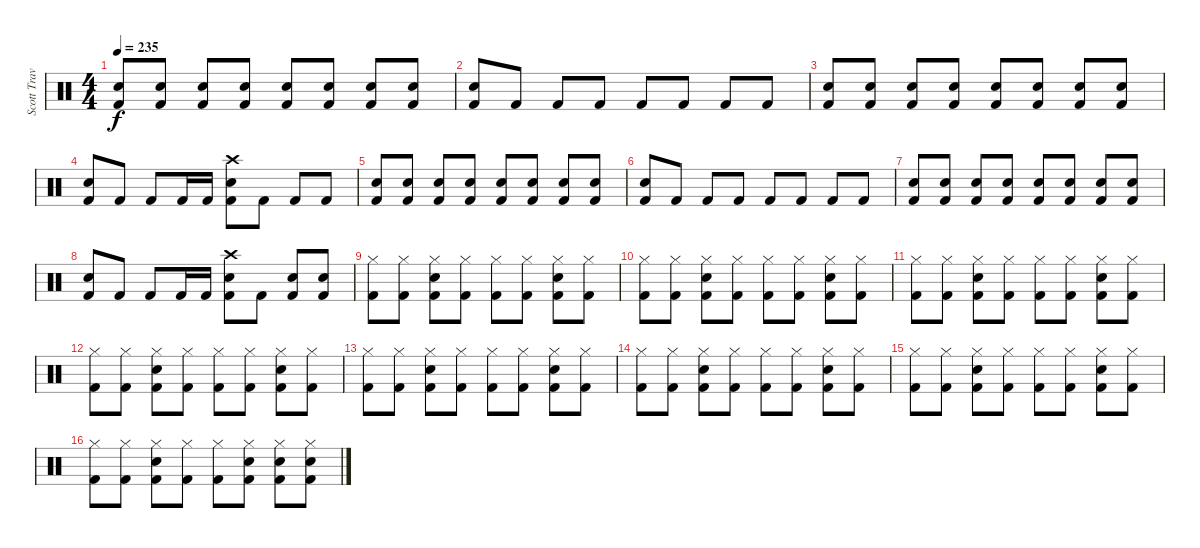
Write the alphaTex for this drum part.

\track ("Scott Travis" "Scott Trav") {instrument percussion}
\staff {score}
\articulation defaults
\ts (4 4)
\tempo 235
\clef neutral
\ks c
("Snare (hit) 2" "Kick (hit) 2").8{dy f} ("Snare (hit) 2" "Kick (hit) 2").8 ("Snare (hit) 2" "Kick (hit) 2").8 ("Snare (hit) 2" "Kick (hit) 2").8 ("Snare (hit) 2" "Kick (hit) 2").8 ("Snare (hit) 2" "Kick (hit) 2").8 ("Snare (hit) 2" "Kick (hit) 2").8 ("Snare (hit) 2" "Kick (hit) 2").8 |
("Snare (hit) 2" "Kick (hit) 2").8 "Kick (hit) 2".8 "Kick (hit) 2".8 "Kick (hit) 2".8 "Kick (hit) 2".8 "Kick (hit) 2".8 "Kick (hit) 2".8 "Kick (hit) 2".8 |
("Snare (hit) 2" "Kick (hit) 2").8 ("Snare (hit) 2" "Kick (hit) 2").8 ("Snare (hit) 2" "Kick (hit) 2").8 ("Snare (hit) 2" "Kick (hit) 2").8 ("Snare (hit) 2" "Kick (hit) 2").8 ("Snare (hit) 2" "Kick (hit) 2").8 ("Snare (hit) 2" "Kick (hit) 2").8 ("Snare (hit) 2" "Kick (hit) 2").8 |
("Snare (hit) 2" "Kick (hit) 2").8 "Kick (hit) 2".8 "Kick (hit) 2".8 "Kick (hit) 2".16 "Kick (hit) 2".16 ("Snare (hit) 2" "Crash high (hit)" "Kick (hit) 2").8 "Kick (hit) 2".8 "Kick (hit) 2".8 "Kick (hit) 2".8 |
("Snare (hit) 2" "Kick (hit) 2").8 ("Snare (hit) 2" "Kick (hit) 2").8 ("Snare (hit) 2" "Kick (hit) 2").8 ("Snare (hit) 2" "Kick (hit) 2").8 ("Snare (hit) 2" "Kick (hit) 2").8 ("Snare (hit) 2" "Kick (hit) 2").8 ("Snare (hit) 2" "Kick (hit) 2").8 ("Snare (hit) 2" "Kick (hit) 2").8 |
("Snare (hit) 2" "Kick (hit) 2").8 "Kick (hit) 2".8 "Kick (hit) 2".8 "Kick (hit) 2".8 "Kick (hit) 2".8 "Kick (hit) 2".8 "Kick (hit) 2".8 "Kick (hit) 2".8 |
("Snare (hit) 2" "Kick (hit) 2").8 ("Snare (hit) 2" "Kick (hit) 2").8 ("Snare (hit) 2" "Kick (hit) 2").8 ("Snare (hit) 2" "Kick (hit) 2").8 ("Snare (hit) 2" "Kick (hit) 2").8 ("Snare (hit) 2" "Kick (hit) 2").8 ("Snare (hit) 2" "Kick (hit) 2").8 ("Snare (hit) 2" "Kick (hit) 2").8 |
("Snare (hit) 2" "Kick (hit) 2").8 "Kick (hit) 2".8 "Kick (hit) 2".8 "Kick (hit) 2".16 "Kick (hit) 2".16 ("Snare (hit) 2" "Crash high (hit)" "Kick (hit) 2").8 "Kick (hit) 2".8 ("Snare (hit) 2" "Kick (hit) 2").8 ("Snare (hit) 2" "Kick (hit) 2").8 |
("Kick (hit) 2" "Hi-Hat (closed)").8 ("Kick (hit) 2" "Hi-Hat (closed)").8 ("Kick (hit) 2" "Snare (hit) 2" "Hi-Hat (closed)").8 ("Kick (hit) 2" "Hi-Hat (closed)").8 ("Kick (hit) 2" "Hi-Hat (closed)").8 ("Kick (hit) 2" "Hi-Hat (closed)").8 ("Kick (hit) 2" "Hi-Hat (closed)" "Snare (hit) 2").8 ("Kick (hit) 2" "Hi-Hat (closed)").8 |
("Kick (hit) 2" "Hi-Hat (closed)").8 ("Kick (hit) 2" "Hi-Hat (closed)").8 ("Kick (hit) 2" "Snare (hit) 2" "Hi-Hat (closed)").8 ("Kick (hit) 2" "Hi-Hat (closed)").8 ("Kick (hit) 2" "Hi-Hat (closed)").8 ("Kick (hit) 2" "Hi-Hat (closed)").8 ("Kick (hit) 2" "Hi-Hat (closed)" "Snare (hit) 2").8 ("Kick (hit) 2" "Hi-Hat (closed)").8 |
("Kick (hit) 2" "Hi-Hat (closed)").8 ("Kick (hit) 2" "Hi-Hat (closed)").8 ("Kick (hit) 2" "Snare (hit) 2" "Hi-Hat (closed)").8 ("Kick (hit) 2" "Hi-Hat (closed)").8 ("Kick (hit) 2" "Hi-Hat (closed)").8 ("Kick (hit) 2" "Hi-Hat (closed)").8 ("Kick (hit) 2" "Hi-Hat (closed)" "Snare (hit) 2").8 ("Kick (hit) 2" "Hi-Hat (closed)").8 |
("Kick (hit) 2" "Hi-Hat (closed)").8 ("Kick (hit) 2" "Hi-Hat (closed)").8 ("Kick (hit) 2" "Snare (hit) 2" "Hi-Hat (closed)").8 ("Kick (hit) 2" "Hi-Hat (closed)").8 ("Kick (hit) 2" "Hi-Hat (closed)").8 ("Kick (hit) 2" "Hi-Hat (closed)").8 ("Kick (hit) 2" "Hi-Hat (closed)" "Snare (hit) 2").8 ("Kick (hit) 2" "Hi-Hat (closed)").8 |
("Kick (hit) 2" "Hi-Hat (closed)").8 ("Kick (hit) 2" "Hi-Hat (closed)").8 ("Kick (hit) 2" "Snare (hit) 2" "Hi-Hat (closed)").8 ("Kick (hit) 2" "Hi-Hat (closed)").8 ("Kick (hit) 2" "Hi-Hat (closed)").8 ("Kick (hit) 2" "Hi-Hat (closed)").8 ("Kick (hit) 2" "Hi-Hat (closed)" "Snare (hit) 2").8 ("Kick (hit) 2" "Hi-Hat (closed)").8 |
("Kick (hit) 2" "Hi-Hat (closed)").8 ("Kick (hit) 2" "Hi-Hat (closed)").8 ("Kick (hit) 2" "Snare (hit) 2" "Hi-Hat (closed)").8 ("Kick (hit) 2" "Hi-Hat (closed)").8 ("Kick (hit) 2" "Hi-Hat (closed)").8 ("Kick (hit) 2" "Hi-Hat (closed)").8 ("Kick (hit) 2" "Hi-Hat (closed)" "Snare (hit) 2").8 ("Kick (hit) 2" "Hi-Hat (closed)").8 |
("Kick (hit) 2" "Hi-Hat (closed)").8 ("Kick (hit) 2" "Hi-Hat (closed)").8 ("Kick (hit) 2" "Snare (hit) 2" "Hi-Hat (closed)").8 ("Kick (hit) 2" "Hi-Hat (closed)").8 ("Kick (hit) 2" "Hi-Hat (closed)").8 ("Kick (hit) 2" "Hi-Hat (closed)").8 ("Kick (hit) 2" "Hi-Hat (closed)" "Snare (hit) 2").8 ("Kick (hit) 2" "Hi-Hat (closed)").8 |
("Kick (hit) 2" "Hi-Hat (closed)").8 ("Kick (hit) 2" "Hi-Hat (closed)").8 ("Kick (hit) 2" "Snare (hit) 2" "Hi-Hat (closed)").8 ("Kick (hit) 2" "Hi-Hat (closed)").8 ("Kick (hit) 2" "Hi-Hat (closed)").8 ("Kick (hit) 2" "Hi-Hat (closed)" "Snare (hit) 2").8 ("Kick (hit) 2" "Hi-Hat (closed)" "Snare (hit) 2").8 ("Kick (hit) 2" "Hi-Hat (closed)" "Snare (hit) 2").8
